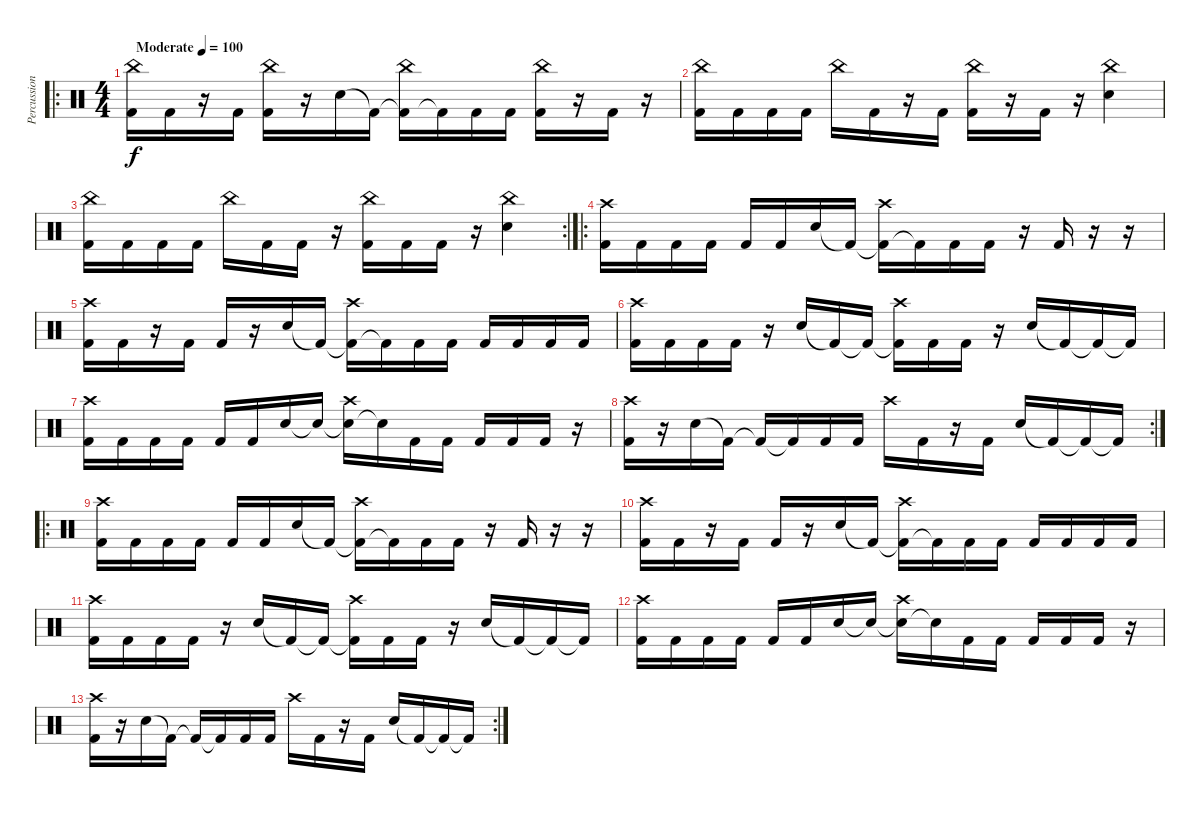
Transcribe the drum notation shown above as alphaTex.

\track ("Percussion" "Percussion") {instrument percussion}
\staff {score}
\articulation defaults
\ro
\ts (4 4)
\tempo (100 "Moderate")
\clef neutral
\ks c
("Kick (hit) 2" "China (hit)").16{dy f} "Kick (hit) 2".16 r.16 "Kick (hit) 2".16 ("Kick (hit) 2" "China (hit)").16 r.16 "Snare (hit) 2".16 "Kick (hit) 2"{t}.16 ("Kick (hit) 2"{t} "China (hit)").16 "Kick (hit) 2"{t}.16 "Kick (hit) 2".16 "Kick (hit) 2".16 ("Kick (hit) 2" "China (hit)").16 r.16 "Kick (hit) 2".16 r.16 |
("Kick (hit) 2" "China (hit)").16 "Kick (hit) 2".16 "Kick (hit) 2".16 "Kick (hit) 2".16 "China (hit)".16 "Kick (hit) 2".16 r.16 "Kick (hit) 2".16 ("Kick (hit) 2" "China (hit)").16 r.16 "Kick (hit) 2".16 r.16 ("Snare (hit) 2" "China (hit)").4 |
\rc 2
("Kick (hit) 2" "China (hit)").16 "Kick (hit) 2".16 "Kick (hit) 2".16 "Kick (hit) 2".16 "China (hit)".16 "Kick (hit) 2".16 "Kick (hit) 2".16 r.16 ("Kick (hit) 2" "China (hit)").16 "Kick (hit) 2".16 "Kick (hit) 2".16 r.16 ("Snare (hit) 2" "China (hit)").4 |
\ro
("Kick (hit) 2" "Crash high (hit)").16 "Kick (hit) 2".16 "Kick (hit) 2".16 "Kick (hit) 2".16 "Kick (hit) 2".16 "Kick (hit) 2".16 "Snare (hit) 2".16 "Kick (hit) 2"{t}.16 ("Kick (hit) 2"{t} "Crash high (hit)").16 "Kick (hit) 2"{t}.16 "Kick (hit) 2".16 "Kick (hit) 2".16 r.16 "Kick (hit) 2".16 r.16 r.16 |
("Kick (hit) 2" "Crash high (hit)").16 "Kick (hit) 2".16 r.16 "Kick (hit) 2".16 "Kick (hit) 2".16 r.16 "Snare (hit) 2".16 "Kick (hit) 2"{t}.16 ("Kick (hit) 2"{t} "Crash high (hit)").16 "Kick (hit) 2"{t}.16 "Kick (hit) 2".16 "Kick (hit) 2".16 "Kick (hit) 2".16 "Kick (hit) 2".16 "Kick (hit) 2".16 "Kick (hit) 2".16 |
("Kick (hit) 2" "Crash high (hit)").16 "Kick (hit) 2".16 "Kick (hit) 2".16 "Kick (hit) 2".16 r.16 "Snare (hit) 2".16 "Kick (hit) 2"{t}.16 "Kick (hit) 2"{t}.16 ("Kick (hit) 2"{t} "Crash high (hit)").16 "Kick (hit) 2".16 "Kick (hit) 2".16 r.16 "Snare (hit) 2".16 "Kick (hit) 2"{t}.16 "Kick (hit) 2"{t}.16 "Kick (hit) 2"{t}.16 |
("Kick (hit) 2" "Crash high (hit)").16 "Kick (hit) 2".16 "Kick (hit) 2".16 "Kick (hit) 2".16 "Kick (hit) 2".16 "Kick (hit) 2".16 "Snare (hit) 2".16 "Snare (hit) 2"{t}.16 ("Snare (hit) 2"{t} "Crash high (hit)").16 "Snare (hit) 2"{t}.16 "Kick (hit) 2".16 "Kick (hit) 2".16 "Kick (hit) 2".16 "Kick (hit) 2".16 "Kick (hit) 2".16 r.16 |
\rc 2
("Kick (hit) 2" "Crash high (hit)").16 r.16 "Snare (hit) 2".16 "Kick (hit) 2"{t}.16 "Kick (hit) 2"{t}.16 "Kick (hit) 2"{t}.16 "Kick (hit) 2".16 "Kick (hit) 2".16 "Crash high (hit)".16 "Kick (hit) 2".16 r.16 "Kick (hit) 2".16 "Snare (hit) 2".16 "Kick (hit) 2"{t}.16 "Kick (hit) 2"{t}.16 "Kick (hit) 2"{t}.16 |
\ro
("Kick (hit) 2" "Crash high (hit)").16 "Kick (hit) 2".16 "Kick (hit) 2".16 "Kick (hit) 2".16 "Kick (hit) 2".16 "Kick (hit) 2".16 "Snare (hit) 2".16 "Kick (hit) 2"{t}.16 ("Kick (hit) 2"{t} "Crash high (hit)").16 "Kick (hit) 2"{t}.16 "Kick (hit) 2".16 "Kick (hit) 2".16 r.16 "Kick (hit) 2".16 r.16 r.16 |
("Kick (hit) 2" "Crash high (hit)").16 "Kick (hit) 2".16 r.16 "Kick (hit) 2".16 "Kick (hit) 2".16 r.16 "Snare (hit) 2".16 "Kick (hit) 2"{t}.16 ("Kick (hit) 2"{t} "Crash high (hit)").16 "Kick (hit) 2"{t}.16 "Kick (hit) 2".16 "Kick (hit) 2".16 "Kick (hit) 2".16 "Kick (hit) 2".16 "Kick (hit) 2".16 "Kick (hit) 2".16 |
("Kick (hit) 2" "Crash high (hit)").16 "Kick (hit) 2".16 "Kick (hit) 2".16 "Kick (hit) 2".16 r.16 "Snare (hit) 2".16 "Kick (hit) 2"{t}.16 "Kick (hit) 2"{t}.16 ("Kick (hit) 2"{t} "Crash high (hit)").16 "Kick (hit) 2".16 "Kick (hit) 2".16 r.16 "Snare (hit) 2".16 "Kick (hit) 2"{t}.16 "Kick (hit) 2"{t}.16 "Kick (hit) 2"{t}.16 |
("Kick (hit) 2" "Crash high (hit)").16 "Kick (hit) 2".16 "Kick (hit) 2".16 "Kick (hit) 2".16 "Kick (hit) 2".16 "Kick (hit) 2".16 "Snare (hit) 2".16 "Snare (hit) 2"{t}.16 ("Snare (hit) 2"{t} "Crash high (hit)").16 "Snare (hit) 2"{t}.16 "Kick (hit) 2".16 "Kick (hit) 2".16 "Kick (hit) 2".16 "Kick (hit) 2".16 "Kick (hit) 2".16 r.16 |
\rc 2
("Kick (hit) 2" "Crash high (hit)").16 r.16 "Snare (hit) 2".16 "Kick (hit) 2"{t}.16 "Kick (hit) 2"{t}.16 "Kick (hit) 2"{t}.16 "Kick (hit) 2".16 "Kick (hit) 2".16 "Crash high (hit)".16 "Kick (hit) 2".16 r.16 "Kick (hit) 2".16 "Snare (hit) 2".16 "Kick (hit) 2"{t}.16 "Kick (hit) 2"{t}.16 "Kick (hit) 2"{t}.16
